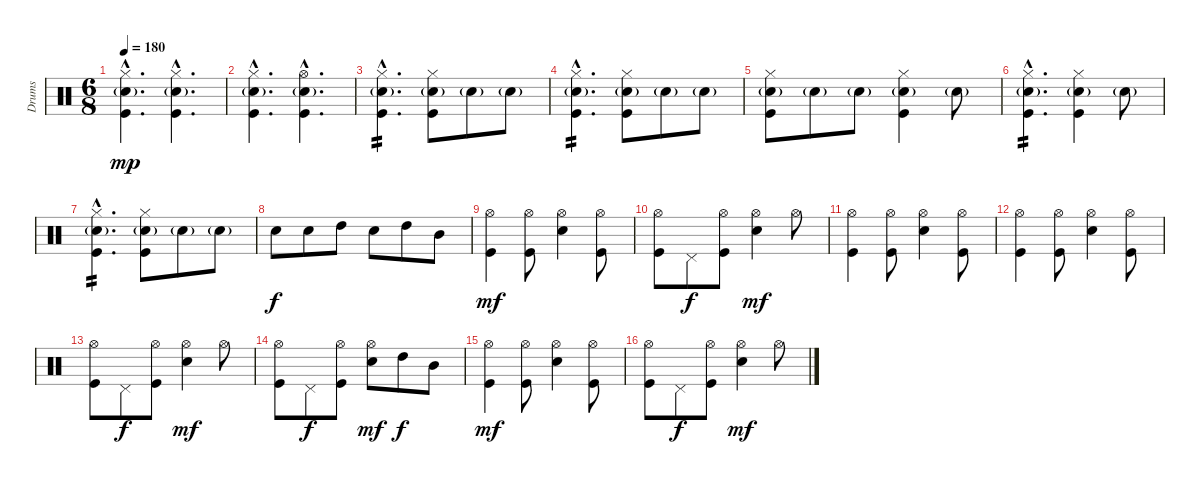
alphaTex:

\track ("Drums" "Drums") {instrument percussion}
\staff {score}
\articulation defaults
\ts (6 8)
\tempo 180
\clef neutral
\ks c
("Hi-Hat (closed)"{hac} "Electric Snare (hit)"{g hac} "Kick (hit)"{hac}).4{d dy mp} ("Hi-Hat (closed)"{hac} "Electric Snare (hit)"{g hac} "Kick (hit)"{hac}).4{d} |
("Hi-Hat (closed)"{hac} "Electric Snare (hit)"{g hac} "Kick (hit)"{hac}).4{d} ("Hi-Hat (open)"{hac} "Electric Snare (hit)"{g hac} "Kick (hit)"{hac}).4{d} |
("Hi-Hat (closed)"{hac} "Electric Snare (hit)"{g hac} "Kick (hit)"{hac}).4{d tp 2} ("Hi-Hat (closed)" "Electric Snare (hit)"{g} "Kick (hit)").8 "Electric Snare (hit)"{g}.8 "Electric Snare (hit)"{g}.8 |
("Hi-Hat (closed)"{hac} "Electric Snare (hit)"{g hac} "Kick (hit)"{hac}).4{d tp 2} ("Hi-Hat (closed)" "Electric Snare (hit)"{g} "Kick (hit)").8 "Electric Snare (hit)"{g}.8 "Electric Snare (hit)"{g}.8 |
("Hi-Hat (closed)" "Electric Snare (hit)"{g} "Kick (hit)").8 "Electric Snare (hit)"{g}.8 "Electric Snare (hit)"{g}.8 ("Hi-Hat (closed)" "Electric Snare (hit)"{g} "Kick (hit)").4 "Electric Snare (hit)"{g}.8 |
("Hi-Hat (closed)"{hac} "Electric Snare (hit)"{g hac} "Kick (hit)"{hac}).4{d tp 2} ("Hi-Hat (closed)" "Electric Snare (hit)"{g} "Kick (hit)").4 "Electric Snare (hit)"{g}.8 |
("Hi-Hat (closed)"{hac} "Electric Snare (hit)"{g hac} "Kick (hit)"{hac}).4{d tp 2} ("Hi-Hat (closed)" "Electric Snare (hit)"{g} "Kick (hit)").8 "Electric Snare (hit)"{g}.8 "Electric Snare (hit)"{g}.8 |
"Electric Snare (hit)".8{dy f} "Electric Snare (hit)".8 "High Tom (hit)".8 "Electric Snare (hit)".8 "High Tom (hit)".8 "Mid Tom (hit)".8 |
("Hi-Hat (open)" "Kick (hit)").4{dy mf} ("Hi-Hat (open)" "Kick (hit)").8 ("Hi-Hat (open)" "Electric Snare (hit)").4 ("Hi-Hat (open)" "Kick (hit)").8 |
("Hi-Hat (open)" "Kick (hit)").8 "Pedal Hi-Hat (hit)".8{dy f} ("Hi-Hat (open)" "Kick (hit)").8 ("Hi-Hat (open)" "Electric Snare (hit)").4{dy mf} "Hi-Hat (open)".8 |
("Hi-Hat (open)" "Kick (hit)").4 ("Hi-Hat (open)" "Kick (hit)").8 ("Hi-Hat (open)" "Electric Snare (hit)").4 ("Hi-Hat (open)" "Kick (hit)").8 |
("Hi-Hat (open)" "Kick (hit)").4 ("Hi-Hat (open)" "Kick (hit)").8 ("Hi-Hat (open)" "Electric Snare (hit)").4 ("Hi-Hat (open)" "Kick (hit)").8 |
("Hi-Hat (open)" "Kick (hit)").8 "Pedal Hi-Hat (hit)".8{dy f} ("Hi-Hat (open)" "Kick (hit)").8 ("Hi-Hat (open)" "Electric Snare (hit)").4{dy mf} "Hi-Hat (open)".8 |
("Hi-Hat (open)" "Kick (hit)").8 "Pedal Hi-Hat (hit)".8{dy f} ("Hi-Hat (open)" "Kick (hit)").8 ("Hi-Hat (open)" "Electric Snare (hit)").8{dy mf} "High Tom (hit)".8{dy f} "Mid Tom (hit)".8 |
("Hi-Hat (open)" "Kick (hit)").4{dy mf} ("Hi-Hat (open)" "Kick (hit)").8 ("Hi-Hat (open)" "Electric Snare (hit)").4 ("Hi-Hat (open)" "Kick (hit)").8 |
("Hi-Hat (open)" "Kick (hit)").8 "Pedal Hi-Hat (hit)".8{dy f} ("Hi-Hat (open)" "Kick (hit)").8 ("Hi-Hat (open)" "Electric Snare (hit)").4{dy mf} "Hi-Hat (open)".8
